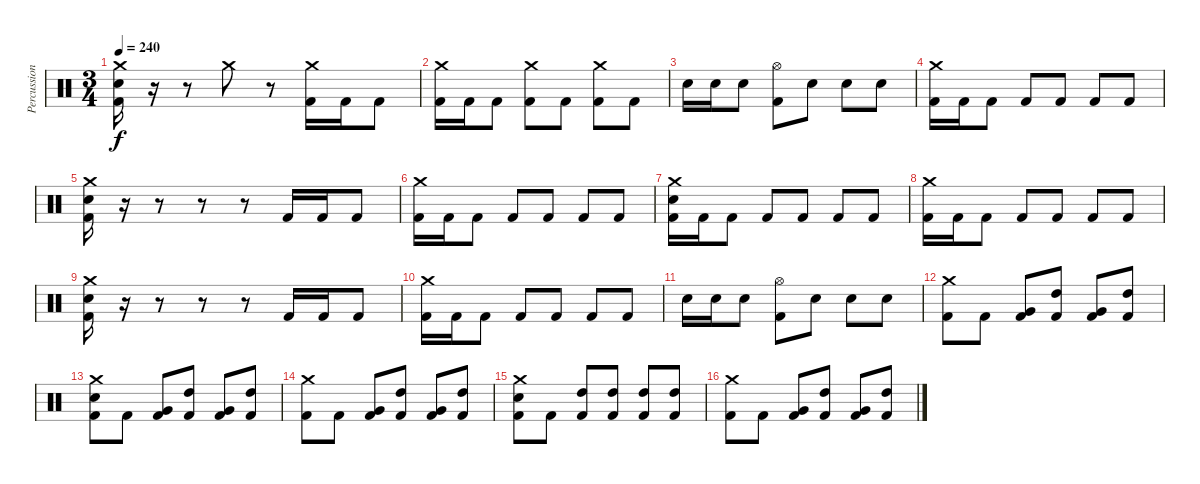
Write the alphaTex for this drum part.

\track ("Percussion" "Percussion") {instrument percussion}
\staff {score}
\articulation defaults
\ts (3 4)
\tempo 240
\clef neutral
\ks c
("Crash medium (hit)" "Electric Snare (hit)" "Kick (hit) 2").16{dy f} r.16 r.8 "Crash medium (hit)".8 r.8 ("Crash medium (hit)" "Kick (hit) 2").16 "Kick (hit) 2".16 "Kick (hit) 2".8 |
("Crash medium (hit)" "Kick (hit) 2").16 "Kick (hit) 2".16 "Kick (hit) 2".8 ("Crash medium (hit)" "Kick (hit) 2").8 "Kick (hit) 2".8 ("Crash medium (hit)" "Kick (hit) 2").8 "Kick (hit) 2".8 |
"Electric Snare (hit)".16 "Electric Snare (hit)".16 "Electric Snare (hit)".8 ("Hi-Hat (open)" "Kick (hit) 2").8 "Electric Snare (hit)".8 "Electric Snare (hit)".8 "Electric Snare (hit)".8 |
("Crash medium (hit)" "Kick (hit) 2").16 "Kick (hit) 2".16 "Kick (hit) 2".8 "Kick (hit) 2".8 "Kick (hit) 2".8 "Kick (hit) 2".8 "Kick (hit) 2".8 |
("Crash medium (hit)" "Electric Snare (hit)" "Kick (hit) 2").16 r.16 r.8 r.8 r.8 "Kick (hit) 2".16 "Kick (hit) 2".16 "Kick (hit) 2".8 |
("Crash medium (hit)" "Kick (hit) 2").16 "Kick (hit) 2".16 "Kick (hit) 2".8 "Kick (hit) 2".8 "Kick (hit) 2".8 "Kick (hit) 2".8 "Kick (hit) 2".8 |
("Crash medium (hit)" "Electric Snare (hit)" "Kick (hit) 2").16 "Kick (hit) 2".16 "Kick (hit) 2".8 "Kick (hit) 2".8 "Kick (hit) 2".8 "Kick (hit) 2".8 "Kick (hit) 2".8 |
("Crash medium (hit)" "Kick (hit) 2").16 "Kick (hit) 2".16 "Kick (hit) 2".8 "Kick (hit) 2".8 "Kick (hit) 2".8 "Kick (hit) 2".8 "Kick (hit) 2".8 |
("Crash medium (hit)" "Electric Snare (hit)" "Kick (hit) 2").16 r.16 r.8 r.8 r.8 "Kick (hit) 2".16 "Kick (hit) 2".16 "Kick (hit) 2".8 |
("Crash medium (hit)" "Kick (hit) 2").16 "Kick (hit) 2".16 "Kick (hit) 2".8 "Kick (hit) 2".8 "Kick (hit) 2".8 "Kick (hit) 2".8 "Kick (hit) 2".8 |
"Electric Snare (hit)".16 "Electric Snare (hit)".16 "Electric Snare (hit)".8 ("Hi-Hat (open)" "Kick (hit) 2").8 "Electric Snare (hit)".8 "Electric Snare (hit)".8 "Electric Snare (hit)".8 |
("Crash medium (hit)" "Kick (hit) 2").8 "Kick (hit) 2".8 ("Very Low Tom (hit)" "Kick (hit) 2").8 ("High Tom (hit)" "Kick (hit) 2").8 ("Very Low Tom (hit)" "Kick (hit) 2").8 ("High Tom (hit)" "Kick (hit) 2").8 |
("Crash medium (hit)" "Electric Snare (hit)" "Kick (hit) 2").8 "Kick (hit) 2".8 ("Very Low Tom (hit)" "Kick (hit) 2").8 ("High Tom (hit)" "Kick (hit) 2").8 ("Very Low Tom (hit)" "Kick (hit) 2").8 ("High Tom (hit)" "Kick (hit) 2").8 |
("Crash medium (hit)" "Kick (hit) 2").8 "Kick (hit) 2".8 ("Very Low Tom (hit)" "Kick (hit) 2").8 ("High Tom (hit)" "Kick (hit) 2").8 ("Very Low Tom (hit)" "Kick (hit) 2").8 ("High Tom (hit)" "Kick (hit) 2").8 |
("Crash medium (hit)" "Electric Snare (hit)" "Kick (hit) 2").8 "Kick (hit) 2".8 ("High Tom (hit)" "Kick (hit) 2").8 ("High Tom (hit)" "Kick (hit) 2").8 ("High Tom (hit)" "Kick (hit) 2").8 ("High Tom (hit)" "Kick (hit) 2").8 |
("Crash medium (hit)" "Kick (hit) 2").8 "Kick (hit) 2".8 ("Very Low Tom (hit)" "Kick (hit) 2").8 ("High Tom (hit)" "Kick (hit) 2").8 ("Very Low Tom (hit)" "Kick (hit) 2").8 ("High Tom (hit)" "Kick (hit) 2").8
